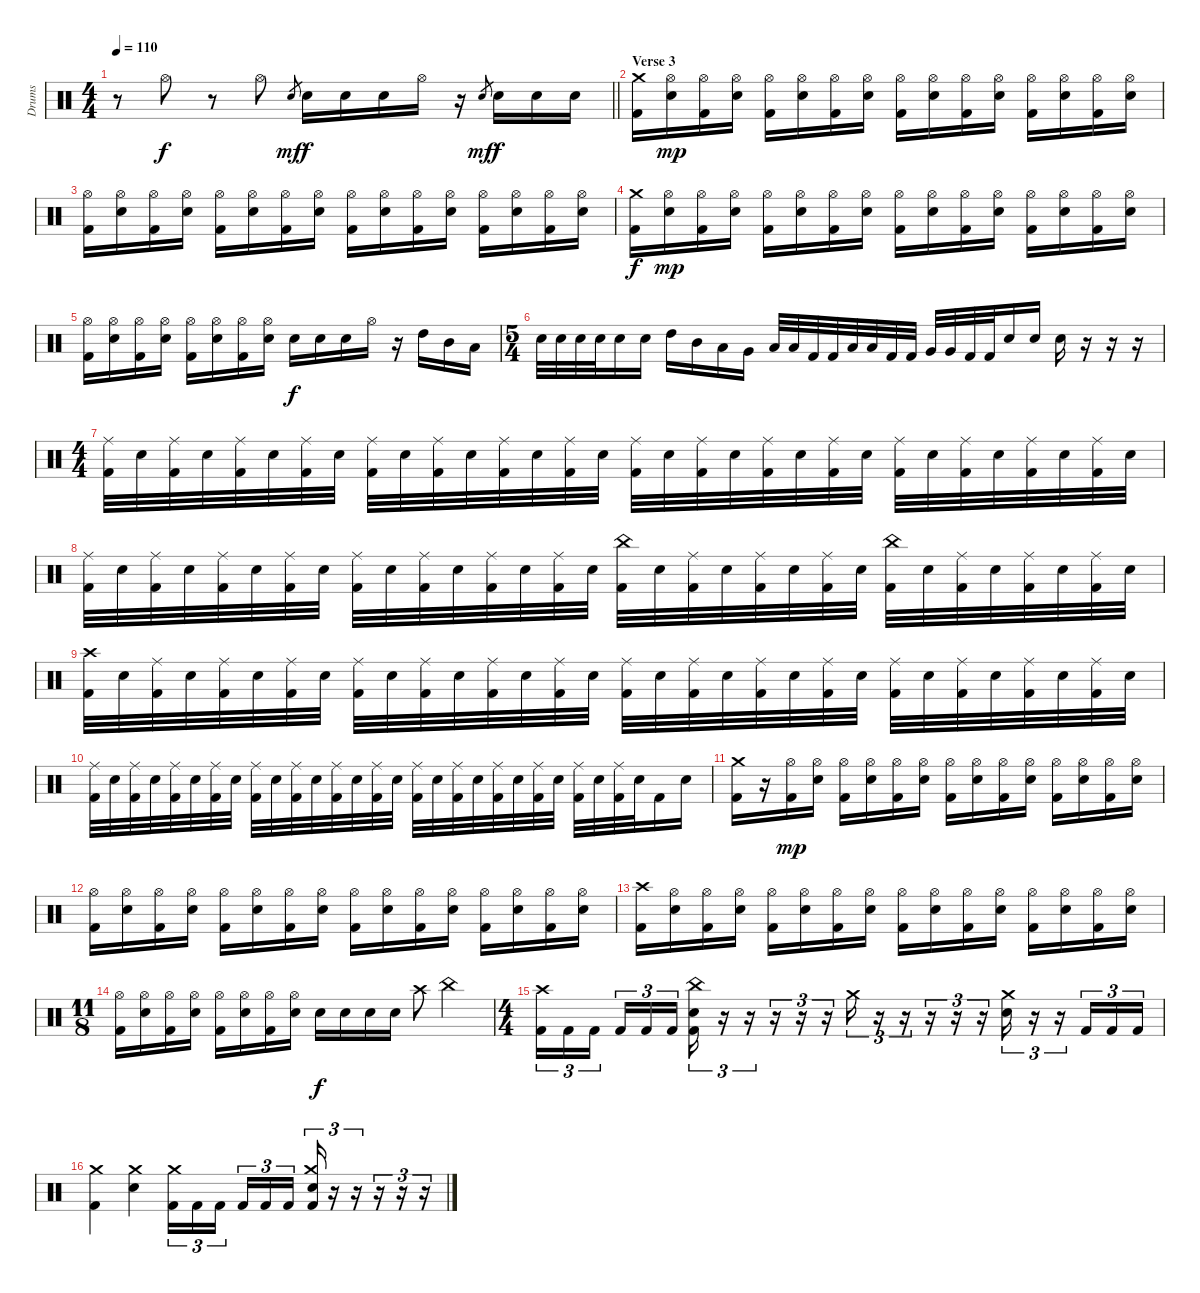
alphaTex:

\track ("Drums" "Drums") {instrument percussion}
\staff {score}
\articulation defaults
\ts (4 4)
\tempo 110
\clef neutral
\barLineRight lightlight
\ks c
r.8{dy f} "Hi-Hat (open)".8 r.8 "Hi-Hat (open)".8 "Electric Snare (hit)".8{gr dy mf} "Electric Snare (hit)".16{dy f} "Electric Snare (hit)".16 "Electric Snare (hit)".16 "Hi-Hat (open)".16 r.16 "Electric Snare (hit)".8{gr dy mf} "Electric Snare (hit)".16{dy f} "Electric Snare (hit)".16 "Electric Snare (hit)".16 |
\section ("" "Verse 3")
("Crash medium (hit)" "Kick (hit) 2").16 ("Hi-Hat (open)" "Electric Snare (hit)").16{dy mp} ("Hi-Hat (open)" "Kick (hit) 2").16 ("Hi-Hat (open)" "Electric Snare (hit)").16 ("Hi-Hat (open)" "Kick (hit) 2").16 ("Hi-Hat (open)" "Electric Snare (hit)").16 ("Hi-Hat (open)" "Kick (hit) 2").16 ("Hi-Hat (open)" "Electric Snare (hit)").16 ("Hi-Hat (open)" "Kick (hit) 2").16 ("Hi-Hat (open)" "Electric Snare (hit)").16 ("Hi-Hat (open)" "Kick (hit) 2").16 ("Hi-Hat (open)" "Electric Snare (hit)").16 ("Hi-Hat (open)" "Kick (hit) 2").16 ("Hi-Hat (open)" "Electric Snare (hit)").16 ("Hi-Hat (open)" "Kick (hit) 2").16 ("Hi-Hat (open)" "Electric Snare (hit)").16 |
("Hi-Hat (open)" "Kick (hit) 2").16 ("Hi-Hat (open)" "Electric Snare (hit)").16 ("Hi-Hat (open)" "Kick (hit) 2").16 ("Hi-Hat (open)" "Electric Snare (hit)").16 ("Hi-Hat (open)" "Kick (hit) 2").16 ("Hi-Hat (open)" "Electric Snare (hit)").16 ("Hi-Hat (open)" "Kick (hit) 2").16 ("Hi-Hat (open)" "Electric Snare (hit)").16 ("Hi-Hat (open)" "Kick (hit) 2").16 ("Hi-Hat (open)" "Electric Snare (hit)").16 ("Hi-Hat (open)" "Kick (hit) 2").16 ("Hi-Hat (open)" "Electric Snare (hit)").16 ("Hi-Hat (open)" "Kick (hit) 2").16 ("Hi-Hat (open)" "Electric Snare (hit)").16 ("Hi-Hat (open)" "Kick (hit) 2").16 ("Hi-Hat (open)" "Electric Snare (hit)").16 |
("Crash medium (hit)" "Kick (hit) 2").16{dy f} ("Hi-Hat (open)" "Electric Snare (hit)").16{dy mp} ("Hi-Hat (open)" "Kick (hit) 2").16 ("Hi-Hat (open)" "Electric Snare (hit)").16 ("Hi-Hat (open)" "Kick (hit) 2").16 ("Hi-Hat (open)" "Electric Snare (hit)").16 ("Hi-Hat (open)" "Kick (hit) 2").16 ("Hi-Hat (open)" "Electric Snare (hit)").16 ("Hi-Hat (open)" "Kick (hit) 2").16 ("Hi-Hat (open)" "Electric Snare (hit)").16 ("Hi-Hat (open)" "Kick (hit) 2").16 ("Hi-Hat (open)" "Electric Snare (hit)").16 ("Hi-Hat (open)" "Kick (hit) 2").16 ("Hi-Hat (open)" "Electric Snare (hit)").16 ("Hi-Hat (open)" "Kick (hit) 2").16 ("Hi-Hat (open)" "Electric Snare (hit)").16 |
("Hi-Hat (open)" "Kick (hit) 2").16 ("Hi-Hat (open)" "Electric Snare (hit)").16 ("Hi-Hat (open)" "Kick (hit) 2").16 ("Hi-Hat (open)" "Electric Snare (hit)").16 ("Hi-Hat (open)" "Kick (hit) 2").16 ("Hi-Hat (open)" "Electric Snare (hit)").16 ("Hi-Hat (open)" "Kick (hit) 2").16 ("Hi-Hat (open)" "Electric Snare (hit)").16 "Electric Snare (hit)".16{dy f} "Electric Snare (hit)".16 "Electric Snare (hit)".16 "Hi-Hat (open)".16 r.16 "High Tom (hit)".16 "Mid Tom (hit)".16 "Low Tom (hit)".16 |
\ts (5 4)
"Electric Snare (hit)".32 "Electric Snare (hit)".32 "Electric Snare (hit)".32 "Electric Snare (hit)".32 "Electric Snare (hit)".16 "Electric Snare (hit)".16 "High Tom (hit)".16 "Mid Tom (hit)".16 "Low Tom (hit)".16 "Very Low Tom (hit)".16 "Low Tom (hit)".32 "Low Tom (hit)".32 "Kick (hit) 2".32 "Kick (hit) 2".32 "Low Tom (hit)".32 "Low Tom (hit)".32 "Kick (hit) 2".32 "Kick (hit) 2".32 "Very Low Tom (hit)".32 "Very Low Tom (hit)".32 "Kick (hit) 2".32 "Kick (hit) 2".32 "Electric Snare (hit)".16 "Electric Snare (hit)".16 "Electric Snare (hit)".16 r.16 r.16 r.16 |
\ts (4 4)
("Ride (middle)" "Kick (hit) 2").32 "Electric Snare (hit)".32 ("Ride (middle)" "Kick (hit) 2").32 "Electric Snare (hit)".32 ("Ride (middle)" "Kick (hit) 2").32 "Electric Snare (hit)".32 ("Ride (middle)" "Kick (hit) 2").32 "Electric Snare (hit)".32 ("Ride (middle)" "Kick (hit) 2").32 "Electric Snare (hit)".32 ("Ride (middle)" "Kick (hit) 2").32 "Electric Snare (hit)".32 ("Ride (middle)" "Kick (hit) 2").32 "Electric Snare (hit)".32 ("Ride (middle)" "Kick (hit) 2").32 "Electric Snare (hit)".32 ("Ride (middle)" "Kick (hit) 2").32 "Electric Snare (hit)".32 ("Ride (middle)" "Kick (hit) 2").32 "Electric Snare (hit)".32 ("Ride (middle)" "Kick (hit) 2").32 "Electric Snare (hit)".32 ("Ride (middle)" "Kick (hit) 2").32 "Electric Snare (hit)".32 ("Ride (middle)" "Kick (hit) 2").32 "Electric Snare (hit)".32 ("Ride (middle)" "Kick (hit) 2").32 "Electric Snare (hit)".32 ("Ride (middle)" "Kick (hit) 2").32 "Electric Snare (hit)".32 ("Ride (middle)" "Kick (hit) 2").32 "Electric Snare (hit)".32 |
("Ride (middle)" "Kick (hit) 2").32 "Electric Snare (hit)".32 ("Ride (middle)" "Kick (hit) 2").32 "Electric Snare (hit)".32 ("Ride (middle)" "Kick (hit) 2").32 "Electric Snare (hit)".32 ("Ride (middle)" "Kick (hit) 2").32 "Electric Snare (hit)".32 ("Ride (middle)" "Kick (hit) 2").32 "Electric Snare (hit)".32 ("Ride (middle)" "Kick (hit) 2").32 "Electric Snare (hit)".32 ("Ride (middle)" "Kick (hit) 2").32 "Electric Snare (hit)".32 ("Ride (middle)" "Kick (hit) 2").32 "Electric Snare (hit)".32 ("China (hit)" "Kick (hit) 2").32 "Electric Snare (hit)".32 ("Ride (middle)" "Kick (hit) 2").32 "Electric Snare (hit)".32 ("Ride (middle)" "Kick (hit) 2").32 "Electric Snare (hit)".32 ("Ride (middle)" "Kick (hit) 2").32 "Electric Snare (hit)".32 ("China (hit)" "Kick (hit) 2").32 "Electric Snare (hit)".32 ("Ride (middle)" "Kick (hit) 2").32 "Electric Snare (hit)".32 ("Ride (middle)" "Kick (hit) 2").32 "Electric Snare (hit)".32 ("Ride (middle)" "Kick (hit) 2").32 "Electric Snare (hit)".32 |
("Crash high (hit)" "Kick (hit) 2").32 "Electric Snare (hit)".32 ("Ride (middle)" "Kick (hit) 2").32 "Electric Snare (hit)".32 ("Ride (middle)" "Kick (hit) 2").32 "Electric Snare (hit)".32 ("Ride (middle)" "Kick (hit) 2").32 "Electric Snare (hit)".32 ("Ride (middle)" "Kick (hit) 2").32 "Electric Snare (hit)".32 ("Ride (middle)" "Kick (hit) 2").32 "Electric Snare (hit)".32 ("Ride (middle)" "Kick (hit) 2").32 "Electric Snare (hit)".32 ("Ride (middle)" "Kick (hit) 2").32 "Electric Snare (hit)".32 ("Ride (middle)" "Kick (hit) 2").32 "Electric Snare (hit)".32 ("Ride (middle)" "Kick (hit) 2").32 "Electric Snare (hit)".32 ("Ride (middle)" "Kick (hit) 2").32 "Electric Snare (hit)".32 ("Ride (middle)" "Kick (hit) 2").32 "Electric Snare (hit)".32 ("Ride (middle)" "Kick (hit) 2").32 "Electric Snare (hit)".32 ("Ride (middle)" "Kick (hit) 2").32 "Electric Snare (hit)".32 ("Ride (middle)" "Kick (hit) 2").32 "Electric Snare (hit)".32 ("Ride (middle)" "Kick (hit) 2").32 "Electric Snare (hit)".32 |
("Ride (middle)" "Kick (hit) 2").32 "Electric Snare (hit)".32 ("Ride (middle)" "Kick (hit) 2").32 "Electric Snare (hit)".32 ("Ride (middle)" "Kick (hit) 2").32 "Electric Snare (hit)".32 ("Ride (middle)" "Kick (hit) 2").32 "Electric Snare (hit)".32 ("Ride (middle)" "Kick (hit) 2").32 "Electric Snare (hit)".32 ("Ride (middle)" "Kick (hit) 2").32 "Electric Snare (hit)".32 ("Ride (middle)" "Kick (hit) 2").32 "Electric Snare (hit)".32 ("Ride (middle)" "Kick (hit) 2").32 "Electric Snare (hit)".32 ("Ride (middle)" "Kick (hit) 2").32 "Electric Snare (hit)".32 ("Ride (middle)" "Kick (hit) 2").32 "Electric Snare (hit)".32 ("Ride (middle)" "Kick (hit) 2").32 "Electric Snare (hit)".32 ("Ride (middle)" "Kick (hit) 2").32 "Electric Snare (hit)".32 ("Ride (middle)" "Kick (hit) 2").32 "Electric Snare (hit)".32 ("Ride (middle)" "Kick (hit) 2").32 "Electric Snare (hit)".32 "Kick (hit) 2".16 "Electric Snare (hit)".16 |
("Crash medium (hit)" "Kick (hit) 2").16 r.16 ("Hi-Hat (open)" "Kick (hit) 2").16{dy mp} ("Hi-Hat (open)" "Electric Snare (hit)").16 ("Hi-Hat (open)" "Kick (hit) 2").16 ("Hi-Hat (open)" "Electric Snare (hit)").16 ("Hi-Hat (open)" "Kick (hit) 2").16 ("Hi-Hat (open)" "Electric Snare (hit)").16 ("Hi-Hat (open)" "Kick (hit) 2").16 ("Hi-Hat (open)" "Electric Snare (hit)").16 ("Hi-Hat (open)" "Kick (hit) 2").16 ("Hi-Hat (open)" "Electric Snare (hit)").16 ("Hi-Hat (open)" "Kick (hit) 2").16 ("Hi-Hat (open)" "Electric Snare (hit)").16 ("Hi-Hat (open)" "Kick (hit) 2").16 ("Hi-Hat (open)" "Electric Snare (hit)").16 |
("Hi-Hat (open)" "Kick (hit) 2").16 ("Hi-Hat (open)" "Electric Snare (hit)").16 ("Hi-Hat (open)" "Kick (hit) 2").16 ("Hi-Hat (open)" "Electric Snare (hit)").16 ("Hi-Hat (open)" "Kick (hit) 2").16 ("Hi-Hat (open)" "Electric Snare (hit)").16 ("Hi-Hat (open)" "Kick (hit) 2").16 ("Hi-Hat (open)" "Electric Snare (hit)").16 ("Hi-Hat (open)" "Kick (hit) 2").16 ("Hi-Hat (open)" "Electric Snare (hit)").16 ("Hi-Hat (open)" "Kick (hit) 2").16 ("Hi-Hat (open)" "Electric Snare (hit)").16 ("Hi-Hat (open)" "Kick (hit) 2").16 ("Hi-Hat (open)" "Electric Snare (hit)").16 ("Hi-Hat (open)" "Kick (hit) 2").16 ("Hi-Hat (open)" "Electric Snare (hit)").16 |
("Crash high (hit)" "Kick (hit) 2").16 ("Hi-Hat (open)" "Electric Snare (hit)").16 ("Hi-Hat (open)" "Kick (hit) 2").16 ("Hi-Hat (open)" "Electric Snare (hit)").16 ("Hi-Hat (open)" "Kick (hit) 2").16 ("Hi-Hat (open)" "Electric Snare (hit)").16 ("Hi-Hat (open)" "Kick (hit) 2").16 ("Hi-Hat (open)" "Electric Snare (hit)").16 ("Hi-Hat (open)" "Kick (hit) 2").16 ("Hi-Hat (open)" "Electric Snare (hit)").16 ("Hi-Hat (open)" "Kick (hit) 2").16 ("Hi-Hat (open)" "Electric Snare (hit)").16 ("Hi-Hat (open)" "Kick (hit) 2").16 ("Hi-Hat (open)" "Electric Snare (hit)").16 ("Hi-Hat (open)" "Kick (hit) 2").16 ("Hi-Hat (open)" "Electric Snare (hit)").16 |
\ts (11 8)
("Hi-Hat (open)" "Kick (hit) 2").16 ("Hi-Hat (open)" "Electric Snare (hit)").16 ("Hi-Hat (open)" "Kick (hit) 2").16 ("Hi-Hat (open)" "Electric Snare (hit)").16 ("Hi-Hat (open)" "Kick (hit) 2").16 ("Hi-Hat (open)" "Electric Snare (hit)").16 ("Hi-Hat (open)" "Kick (hit) 2").16 ("Hi-Hat (open)" "Electric Snare (hit)").16 "Electric Snare (hit)".16{dy f} "Electric Snare (hit)".16 "Electric Snare (hit)".16 "Electric Snare (hit)".16 "Crash high (hit)".8 "China (hit)".2 |
\ts (4 4)
("Crash high (hit)" "Kick (hit) 2").16{tu (3 2)} "Kick (hit) 2".16{tu (3 2)} "Kick (hit) 2".16{tu (3 2) beam splitsecondary} "Kick (hit) 2".16{tu (3 2)} "Kick (hit) 2".16{tu (3 2)} "Kick (hit) 2".16{tu (3 2)} ("China (hit)" "Electric Snare (hit)" "Kick (hit) 2").16{tu (3 2)} r.16{tu (3 2)} r.16{tu (3 2)} r.16{tu (3 2)} r.16{tu (3 2)} r.16{tu (3 2)} "Crash medium (hit)".16{tu (3 2)} r.16{tu (3 2)} r.16{tu (3 2)} r.16{tu (3 2)} r.16{tu (3 2)} r.16{tu (3 2)} ("Crash medium (hit)" "Electric Snare (hit)").16{tu (3 2)} r.16{tu (3 2)} r.16{tu (3 2)} "Kick (hit) 2".16{tu (3 2)} "Kick (hit) 2".16{tu (3 2)} "Kick (hit) 2".16{tu (3 2)} |
("Crash medium (hit)" "Kick (hit) 2").4 ("Crash medium (hit)" "Electric Snare (hit)").4 ("Crash medium (hit)" "Kick (hit) 2").16{tu (3 2)} "Kick (hit) 2".16{tu (3 2)} "Kick (hit) 2".16{tu (3 2) beam splitsecondary} "Kick (hit) 2".16{tu (3 2)} "Kick (hit) 2".16{tu (3 2)} "Kick (hit) 2".16{tu (3 2)} ("Crash medium (hit)" "Electric Snare (hit)" "Kick (hit) 2").16{tu (3 2)} r.16{tu (3 2)} r.16{tu (3 2)} r.16{tu (3 2)} r.16{tu (3 2)} r.16{tu (3 2)}
